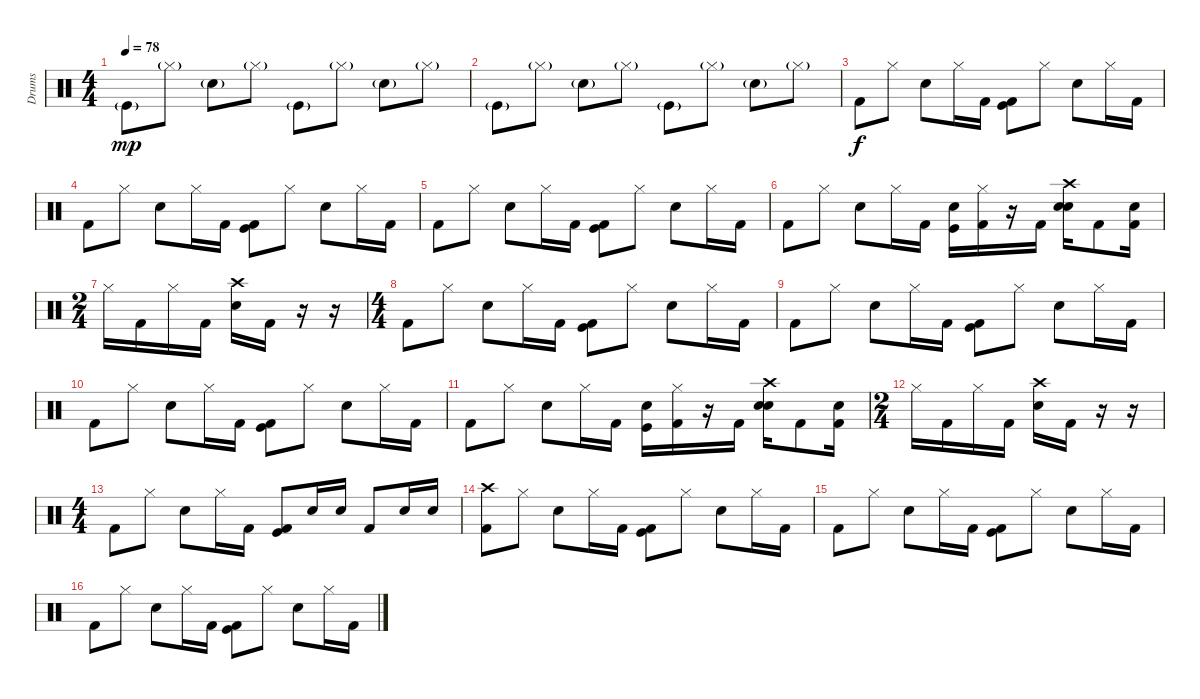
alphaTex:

\track ("Drums" "Drums") {instrument percussion}
\staff {score}
\articulation defaults
\ts (4 4)
\tempo 78
\clef neutral
\ks c "Kick (hit)"{g}.8{dy mp} "Hi-Hat (closed)"{g}.8 "Electric Snare (hit)"{g}.8 "Hi-Hat (closed)"{g}.8 "Kick (hit)"{g}.8 "Hi-Hat (closed)"{g}.8 "Electric Snare (hit)"{g}.8 "Hi-Hat (closed)"{g}.8
|
"Kick (hit)"{g}.8 "Hi-Hat (closed)"{g}.8 "Electric Snare (hit)"{g}.8 "Hi-Hat (closed)"{g}.8 "Kick (hit)"{g}.8 "Hi-Hat (closed)"{g}.8 "Electric Snare (hit)"{g}.8 "Hi-Hat (closed)"{g}.8 |
"Kick (hit) 2".8{dy f} "Hi-Hat (closed)".8 "Snare (hit) 2".8 "Hi-Hat (closed)".16 "Kick (hit) 2".16 ("Kick (hit) 2" "Kick (hit)").8 "Hi-Hat (closed)".8 "Snare (hit) 2".8 "Hi-Hat (closed)".16 "Kick (hit) 2".16 |
"Kick (hit) 2".8 "Hi-Hat (closed)".8 "Snare (hit) 2".8 "Hi-Hat (closed)".16 "Kick (hit) 2".16 ("Kick (hit) 2" "Kick (hit)").8 "Hi-Hat (closed)".8 "Snare (hit) 2".8 "Hi-Hat (closed)".16 "Kick (hit) 2".16 |
"Kick (hit) 2".8 "Hi-Hat (closed)".8 "Snare (hit) 2".8 "Hi-Hat (closed)".16 "Kick (hit) 2".16 ("Kick (hit) 2" "Kick (hit)").8 "Hi-Hat (closed)".8 "Snare (hit) 2".8 "Hi-Hat (closed)".16 "Kick (hit) 2".16 |
"Kick (hit) 2".8 "Hi-Hat (closed)".8 "Snare (hit) 2".8 "Hi-Hat (closed)".16 "Kick (hit) 2".16 ("Electric Snare (hit)" "Kick (hit)").16 ("Hi-Hat (closed)" "Kick (hit) 2").16 r.16 "Kick (hit) 2".16 ("Snare (hit) 2" "Crash high (hit)" "Snare (hit) 2").16 "Kick (hit) 2".8 ("Kick (hit) 2" "Snare (hit) 2").16 |
\ts (2 4)
"Hi-Hat (closed)".16 "Kick (hit) 2".16 "Hi-Hat (closed)".16 "Kick (hit) 2".16 ("Crash high (hit)" "Snare (hit) 2").16 "Kick (hit) 2".16 r.16 r.16 |
\ts (4 4)
"Kick (hit) 2".8 "Hi-Hat (closed)".8 "Snare (hit) 2".8 "Hi-Hat (closed)".16 "Kick (hit) 2".16 ("Kick (hit) 2" "Kick (hit)").8 "Hi-Hat (closed)".8 "Snare (hit) 2".8 "Hi-Hat (closed)".16 "Kick (hit) 2".16 |
"Kick (hit) 2".8 "Hi-Hat (closed)".8 "Snare (hit) 2".8 "Hi-Hat (closed)".16 "Kick (hit) 2".16 ("Kick (hit) 2" "Kick (hit)").8 "Hi-Hat (closed)".8 "Snare (hit) 2".8 "Hi-Hat (closed)".16 "Kick (hit) 2".16 |
"Kick (hit) 2".8 "Hi-Hat (closed)".8 "Snare (hit) 2".8 "Hi-Hat (closed)".16 "Kick (hit) 2".16 ("Kick (hit) 2" "Kick (hit)").8 "Hi-Hat (closed)".8 "Snare (hit) 2".8 "Hi-Hat (closed)".16 "Kick (hit) 2".16 |
"Kick (hit) 2".8 "Hi-Hat (closed)".8 "Snare (hit) 2".8 "Hi-Hat (closed)".16 "Kick (hit) 2".16 ("Electric Snare (hit)" "Kick (hit)").16 ("Hi-Hat (closed)" "Kick (hit) 2").16 r.16 "Kick (hit) 2".16 ("Snare (hit) 2" "Crash high (hit)" "Snare (hit) 2").16 "Kick (hit) 2".8 ("Kick (hit) 2" "Snare (hit) 2").16 |
\ts (2 4)
"Hi-Hat (closed)".16 "Kick (hit) 2".16 "Hi-Hat (closed)".16 "Kick (hit) 2".16 ("Crash high (hit)" "Snare (hit) 2").16 "Kick (hit) 2".16 r.16 r.16 |
\ts (4 4)
"Kick (hit) 2".8 "Hi-Hat (closed)".8 "Snare (hit) 2".8 "Hi-Hat (closed)".16 "Kick (hit) 2".16 ("Kick (hit) 2" "Kick (hit)").8 "Electric Snare (hit)".16 "Electric Snare (hit)".16 "Kick (hit) 2".8 "Electric Snare (hit)".16 "Electric Snare (hit)".16 |
("Kick (hit) 2" "Crash high (hit)").8 "Hi-Hat (closed)".8 "Snare (hit) 2".8 "Hi-Hat (closed)".16 "Kick (hit) 2".16 ("Kick (hit) 2" "Kick (hit)").8 "Hi-Hat (closed)".8 "Snare (hit) 2".8 "Hi-Hat (closed)".16 "Kick (hit) 2".16 |
"Kick (hit) 2".8 "Hi-Hat (closed)".8 "Snare (hit) 2".8 "Hi-Hat (closed)".16 "Kick (hit) 2".16 ("Kick (hit) 2" "Kick (hit)").8 "Hi-Hat (closed)".8 "Snare (hit) 2".8 "Hi-Hat (closed)".16 "Kick (hit) 2".16 |
"Kick (hit) 2".8 "Hi-Hat (closed)".8 "Snare (hit) 2".8 "Hi-Hat (closed)".16 "Kick (hit) 2".16 ("Kick (hit) 2" "Kick (hit)").8 "Hi-Hat (closed)".8 "Snare (hit) 2".8 "Hi-Hat (closed)".16 "Kick (hit) 2".16
